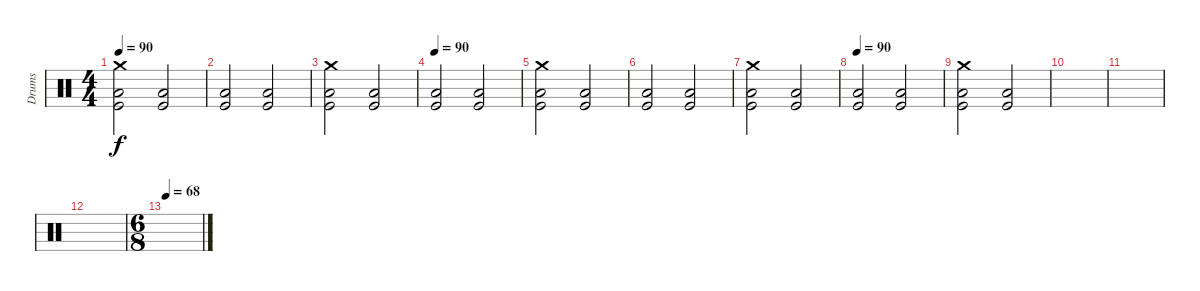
\track ("Drums" "Drums") {instrument percussion}
\staff {score}
\articulation defaults
\ts (4 4)
\tempo 90
\clef neutral
\ks c
("Crash medium (hit)" "Low Floor Tom (hit)" "Kick (hit)").2{dy f} ("Low Floor Tom (hit)" "Kick (hit)").2 |
("Low Floor Tom (hit)" "Kick (hit)").2{volume 0} ("Low Floor Tom (hit)" "Kick (hit)").2 |
("Crash medium (hit)" "Low Floor Tom (hit)" "Kick (hit)").2 ("Low Floor Tom (hit)" "Kick (hit)").2 |
\tempo 90
("Low Floor Tom (hit)" "Kick (hit)").2 ("Low Floor Tom (hit)" "Kick (hit)").2 |
("Crash medium (hit)" "Low Floor Tom (hit)" "Kick (hit)").2 ("Low Floor Tom (hit)" "Kick (hit)").2 |
("Low Floor Tom (hit)" "Kick (hit)").2 ("Low Floor Tom (hit)" "Kick (hit)").2 |
("Crash medium (hit)" "Low Floor Tom (hit)" "Kick (hit)").2 ("Low Floor Tom (hit)" "Kick (hit)").2 |
\tempo 90
("Low Floor Tom (hit)" "Kick (hit)").2 ("Low Floor Tom (hit)" "Kick (hit)").2 |
("Crash medium (hit)" "Low Floor Tom (hit)" "Kick (hit)").2 ("Low Floor Tom (hit)" "Kick (hit)").2 |
|
|
|
\ts (6 8)
\tempo 68
